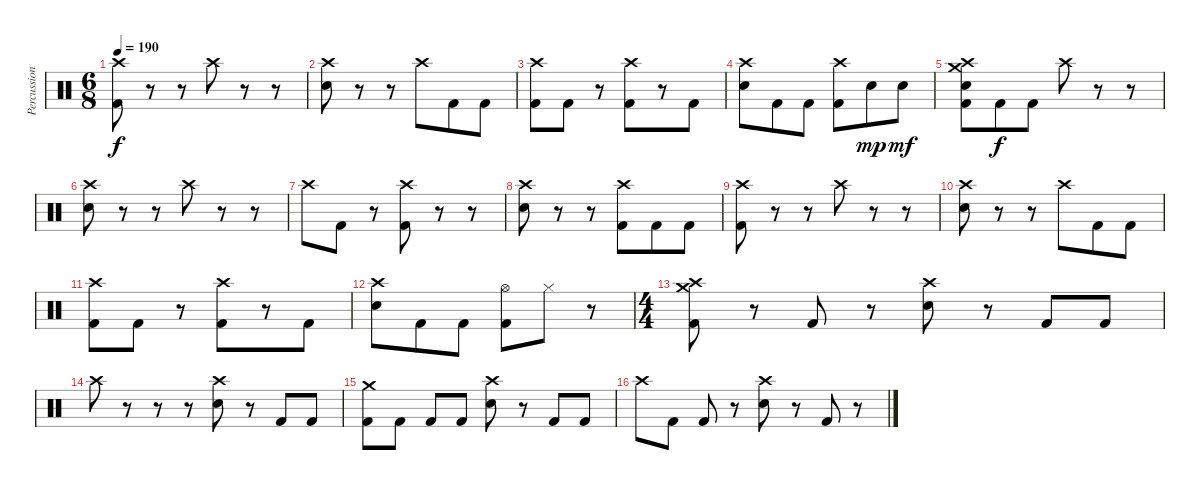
\track ("Percussion" "Percussion") {instrument percussion}
\staff {score}
\articulation defaults
\ts (6 8)
\tempo 190
\clef neutral
\ks c
("Crash high (hit)" "Kick (hit) 2").8{dy f} r.8 r.8 "Crash high (hit)".8 r.8 r.8 |
("Crash high (hit)" "Electric Snare (hit)").8 r.8 r.8 "Crash high (hit)".8 "Kick (hit) 2".8 "Kick (hit) 2".8 |
("Crash high (hit)" "Kick (hit) 2").8 "Kick (hit) 2".8 r.8 ("Crash high (hit)" "Kick (hit) 2").8 r.8 "Kick (hit) 2".8 |
("Crash high (hit)" "Electric Snare (hit)").8 "Kick (hit) 2".8 "Kick (hit) 2".8 ("Crash high (hit)" "Kick (hit) 2").8 "Electric Snare (hit)".8{dy mp} "Electric Snare (hit)".8{dy mf} |
("Crash high (hit)" "Crash medium (hit)" "Electric Snare (hit)" "Kick (hit) 2").8 "Kick (hit) 2".8{dy f} "Kick (hit) 2".8 "Crash high (hit)".8 r.8 r.8 |
("Crash high (hit)" "Electric Snare (hit)").8 r.8 r.8 "Crash high (hit)".8 r.8 r.8 |
"Crash high (hit)".8 "Kick (hit) 2".8 r.8 ("Crash high (hit)" "Kick (hit) 2").8 r.8 r.8 |
("Crash high (hit)" "Electric Snare (hit)").8 r.8 r.8 ("Crash high (hit)" "Kick (hit) 2").8 "Kick (hit) 2".8 "Kick (hit) 2".8 |
("Crash high (hit)" "Kick (hit) 2").8 r.8 r.8 "Crash high (hit)".8 r.8 r.8 |
("Crash high (hit)" "Electric Snare (hit)").8 r.8 r.8 "Crash high (hit)".8 "Kick (hit) 2".8 "Kick (hit) 2".8 |
("Crash high (hit)" "Kick (hit) 2").8 "Kick (hit) 2".8 r.8 ("Crash high (hit)" "Kick (hit) 2").8 r.8 "Kick (hit) 2".8 |
("Crash high (hit)" "Electric Snare (hit)").8 "Kick (hit) 2".8 "Kick (hit) 2".8 ("Hi-Hat (open)" "Kick (hit) 2").8 "Hi-Hat (closed)".8 r.8 |
\ts (4 4)
("Crash high (hit)" "Crash medium (hit)" "Kick (hit) 2").8 r.8 "Kick (hit) 2".8 r.8 ("Crash high (hit)" "Electric Snare (hit)").8 r.8 "Kick (hit) 2".8 "Kick (hit) 2".8 |
"Crash high (hit)".8 r.8 r.8 r.8 ("Crash high (hit)" "Electric Snare (hit)").8 r.8 "Kick (hit) 2".8 "Kick (hit) 2".8 |
("Crash medium (hit)" "Kick (hit) 2").8 "Kick (hit) 2".8 "Kick (hit) 2".8 "Kick (hit) 2".8 ("Crash high (hit)" "Electric Snare (hit)").8 r.8 "Kick (hit) 2".8 "Kick (hit) 2".8 |
"Crash high (hit)".8 "Kick (hit) 2".8 "Kick (hit) 2".8 r.8 ("Crash high (hit)" "Electric Snare (hit)").8 r.8 "Kick (hit) 2".8 r.8
